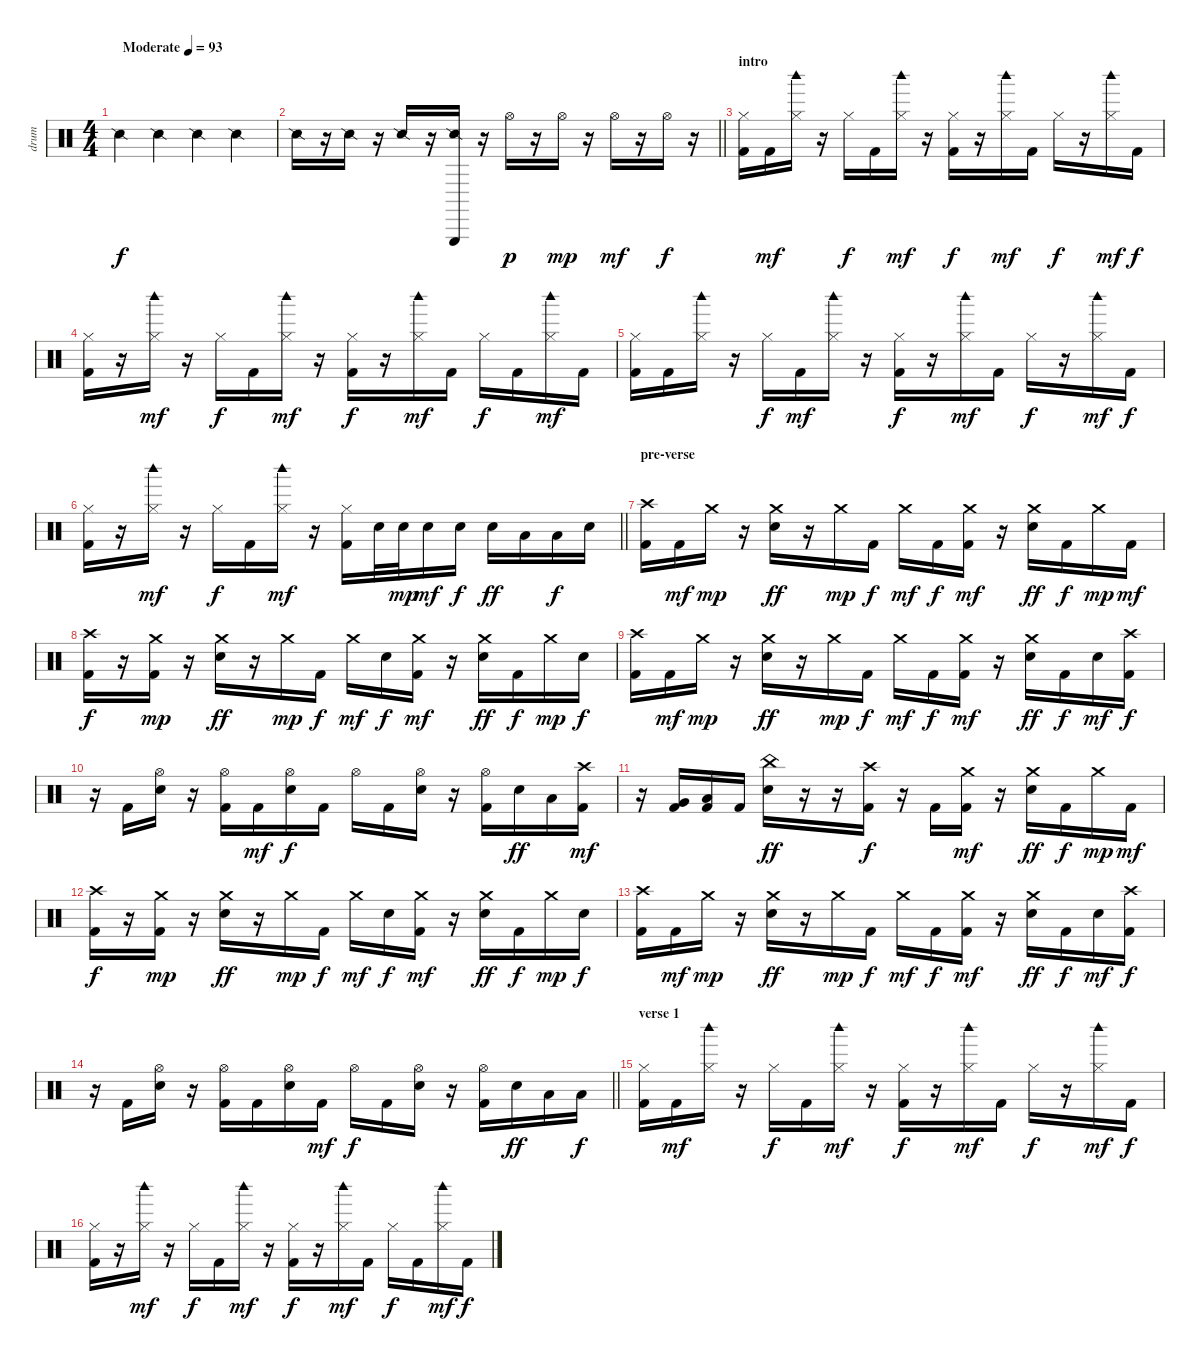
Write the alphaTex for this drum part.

\track ("drum" "drum") {instrument percussion}
\staff {score}
\articulation defaults
\ts (4 4)
\tempo (93 "Moderate")
\clef neutral
\ks c "Snare (side stick) 2".4{dy f} "Snare (side stick) 2".4 "Snare (side stick) 2".4 "Snare (side stick) 2".4
|
\barLineRight lightlight "Snare (side stick) 2".16
r.16 "Snare (side stick) 2".16 r.16 "Snare (side stick) 2".16 r.16 ("Triangle (hit)" "Snare (side stick) 2").16 r.16 "Hi-Hat (open)".16{dy p} r.16 "Hi-Hat (open)".16{dy mp} r.16 "Hi-Hat (open)".16{dy mf} r.16 "Hi-Hat (open)".16{dy f} r.16 |
\section ("" "intro")
("Hi-Hat (closed)" "Kick (hit) 2").16 "Kick (hit) 2".16{dy mf} ("Hi-Hat (closed)" "Woodblock high (hit)").16 r.16 "Hi-Hat (closed)".16{dy f} "Kick (hit) 2".16 ("Hi-Hat (closed)" "Woodblock high (hit)").16{dy mf} r.16 ("Hi-Hat (closed)" "Kick (hit) 2").16{dy f} r.16 ("Hi-Hat (closed)" "Woodblock high (hit)").16{dy mf} "Kick (hit) 2".16 "Hi-Hat (closed)".16{dy f} r.16 ("Hi-Hat (closed)" "Woodblock high (hit)").16{dy mf} "Kick (hit) 2".16{dy f} |
("Hi-Hat (closed)" "Kick (hit) 2").16 r.16 ("Hi-Hat (closed)" "Woodblock high (hit)").16{dy mf} r.16 "Hi-Hat (closed)".16{dy f} "Kick (hit) 2".16 ("Hi-Hat (closed)" "Woodblock high (hit)").16{dy mf} r.16 ("Hi-Hat (closed)" "Kick (hit) 2").16{dy f} r.16 ("Hi-Hat (closed)" "Woodblock high (hit)").16{dy mf} "Kick (hit) 2".16 "Hi-Hat (closed)".16{dy f} "Kick (hit) 2".16 ("Hi-Hat (closed)" "Woodblock high (hit)").16{dy mf} "Kick (hit) 2".16 |
("Hi-Hat (closed)" "Kick (hit) 2").16 "Kick (hit) 2".16 ("Hi-Hat (closed)" "Woodblock high (hit)").16 r.16 "Hi-Hat (closed)".16{dy f} "Kick (hit) 2".16{dy mf} ("Hi-Hat (closed)" "Woodblock high (hit)").16 r.16 ("Hi-Hat (closed)" "Kick (hit) 2").16{dy f} r.16 ("Hi-Hat (closed)" "Woodblock high (hit)").16{dy mf} "Kick (hit) 2".16 "Hi-Hat (closed)".16{dy f} r.16 ("Hi-Hat (closed)" "Woodblock high (hit)").16{dy mf} "Kick (hit) 2".16{dy f} |
\barLineRight lightlight
("Hi-Hat (closed)" "Kick (hit) 2").16 r.16 ("Hi-Hat (closed)" "Woodblock high (hit)").16{dy mf} r.16 "Hi-Hat (closed)".16{dy f} "Kick (hit) 2".16 ("Hi-Hat (closed)" "Woodblock high (hit)").16{dy mf} r.16 ("Hi-Hat (closed)" "Kick (hit) 2").16 "Electric Snare (hit)".32 "Electric Snare (hit)".32{dy mp} "Electric Snare (hit)".16{dy mf} "Electric Snare (hit)".16{dy f} "Electric Snare (hit)".16{dy ff} "Low Tom (hit)".16 "Low Tom (hit)".16{dy f} "Electric Snare (hit)".16 |
\section ("" "pre-verse")
("Crash high (hit)" "Kick (hit) 2").16 "Kick (hit) 2".16{dy mf} "Crash medium (hit)".16{dy mp} r.16 ("Crash medium (hit)" "Electric Snare (hit)").16{dy ff} r.16 "Crash medium (hit)".16{dy mp} "Kick (hit) 2".16{dy f} "Crash medium (hit)".16{dy mf} "Kick (hit) 2".16{dy f} ("Crash medium (hit)" "Kick (hit) 2").16{dy mf} r.16 ("Crash medium (hit)" "Electric Snare (hit)").16{dy ff} "Kick (hit) 2".16{dy f} "Crash medium (hit)".16{dy mp} "Kick (hit) 2".16{dy mf} |
("Crash high (hit)" "Kick (hit) 2").16{dy f} r.16 ("Crash medium (hit)" "Kick (hit) 2").16{dy mp} r.16 ("Crash medium (hit)" "Electric Snare (hit)").16{dy ff} r.16 "Crash medium (hit)".16{dy mp} "Kick (hit) 2".16{dy f} "Crash medium (hit)".16{dy mf} "Electric Snare (hit)".16{dy f} ("Crash medium (hit)" "Kick (hit) 2").16{dy mf} r.16 ("Crash medium (hit)" "Electric Snare (hit)").16{dy ff} "Kick (hit) 2".16{dy f} "Crash medium (hit)".16{dy mp} "Electric Snare (hit)".16{dy f} |
("Crash high (hit)" "Kick (hit) 2").16 "Kick (hit) 2".16{dy mf} "Crash medium (hit)".16{dy mp} r.16 ("Crash medium (hit)" "Electric Snare (hit)").16{dy ff} r.16 "Crash medium (hit)".16{dy mp} "Kick (hit) 2".16{dy f} "Crash medium (hit)".16{dy mf} "Kick (hit) 2".16{dy f} ("Crash medium (hit)" "Kick (hit) 2").16{dy mf} r.16 ("Crash medium (hit)" "Electric Snare (hit)").16{dy ff} "Kick (hit) 2".16{dy f} "Electric Snare (hit)".16{dy mf} ("Crash high (hit)" "Kick (hit) 2").16{dy f} |
r.16 "Kick (hit) 2".16 ("Hi-Hat (open)" "Electric Snare (hit)").16 r.16 ("Hi-Hat (open)" "Kick (hit) 2").16 "Kick (hit) 2".16{dy mf} ("Hi-Hat (open)" "Electric Snare (hit)").16{dy f} "Kick (hit) 2".16 "Hi-Hat (open)".16 "Kick (hit) 2".16 ("Hi-Hat (open)" "Electric Snare (hit)").16 r.16 ("Hi-Hat (open)" "Kick (hit) 2").16 "Electric Snare (hit)".16{dy ff} "Low Tom (hit)".16 ("Crash high (hit)" "Kick (hit) 2").16{dy mf} |
r.16 ("Very Low Tom (hit)" "Kick (hit) 2").16 ("Low Tom (hit)" "Kick (hit) 2").16 "Kick (hit) 2".16 ("China (hit)" "Electric Snare (hit)").16{dy ff} r.16 r.16 ("Crash high (hit)" "Kick (hit) 2").16{dy f} r.16 "Kick (hit) 2".16 ("Crash medium (hit)" "Kick (hit) 2").16{dy mf} r.16 ("Crash medium (hit)" "Electric Snare (hit)").16{dy ff} "Kick (hit) 2".16{dy f} "Crash medium (hit)".16{dy mp} "Kick (hit) 2".16{dy mf} |
("Crash high (hit)" "Kick (hit) 2").16{dy f} r.16 ("Crash medium (hit)" "Kick (hit) 2").16{dy mp} r.16 ("Crash medium (hit)" "Electric Snare (hit)").16{dy ff} r.16 "Crash medium (hit)".16{dy mp} "Kick (hit) 2".16{dy f} "Crash medium (hit)".16{dy mf} "Electric Snare (hit)".16{dy f} ("Crash medium (hit)" "Kick (hit) 2").16{dy mf} r.16 ("Crash medium (hit)" "Electric Snare (hit)").16{dy ff} "Kick (hit) 2".16{dy f} "Crash medium (hit)".16{dy mp} "Electric Snare (hit)".16{dy f} |
("Crash high (hit)" "Kick (hit) 2").16 "Kick (hit) 2".16{dy mf} "Crash medium (hit)".16{dy mp} r.16 ("Crash medium (hit)" "Electric Snare (hit)").16{dy ff} r.16 "Crash medium (hit)".16{dy mp} "Kick (hit) 2".16{dy f} "Crash medium (hit)".16{dy mf} "Kick (hit) 2".16{dy f} ("Crash medium (hit)" "Kick (hit) 2").16{dy mf} r.16 ("Crash medium (hit)" "Electric Snare (hit)").16{dy ff} "Kick (hit) 2".16{dy f} "Electric Snare (hit)".16{dy mf} ("Crash high (hit)" "Kick (hit) 2").16{dy f} |
\barLineRight lightlight
r.16 "Kick (hit) 2".16 ("Hi-Hat (open)" "Electric Snare (hit)").16 r.16 ("Hi-Hat (open)" "Kick (hit) 2").16 "Kick (hit) 2".16 ("Hi-Hat (open)" "Electric Snare (hit)").16 "Kick (hit) 2".16{dy mf} "Hi-Hat (open)".16{dy f} "Kick (hit) 2".16 ("Hi-Hat (open)" "Electric Snare (hit)").16 r.16 ("Hi-Hat (open)" "Kick (hit) 2").16 "Electric Snare (hit)".16{dy ff} "Low Tom (hit)".16 "Low Tom (hit)".16{dy f} |
\section ("" "verse 1")
("Hi-Hat (closed)" "Kick (hit) 2").16 "Kick (hit) 2".16{dy mf} ("Hi-Hat (closed)" "Woodblock high (hit)").16 r.16 "Hi-Hat (closed)".16{dy f} "Kick (hit) 2".16 ("Hi-Hat (closed)" "Woodblock high (hit)").16{dy mf} r.16 ("Hi-Hat (closed)" "Kick (hit) 2").16{dy f} r.16 ("Hi-Hat (closed)" "Woodblock high (hit)").16{dy mf} "Kick (hit) 2".16 "Hi-Hat (closed)".16{dy f} r.16 ("Hi-Hat (closed)" "Woodblock high (hit)").16{dy mf} "Kick (hit) 2".16{dy f} |
("Hi-Hat (closed)" "Kick (hit) 2").16 r.16 ("Hi-Hat (closed)" "Woodblock high (hit)").16{dy mf} r.16 "Hi-Hat (closed)".16{dy f} "Kick (hit) 2".16 ("Hi-Hat (closed)" "Woodblock high (hit)").16{dy mf} r.16 ("Hi-Hat (closed)" "Kick (hit) 2").16{dy f} r.16 ("Hi-Hat (closed)" "Woodblock high (hit)").16{dy mf} "Kick (hit) 2".16 "Hi-Hat (closed)".16{dy f} "Kick (hit) 2".16 ("Hi-Hat (closed)" "Woodblock high (hit)").16{dy mf} "Kick (hit) 2".16{dy f}
